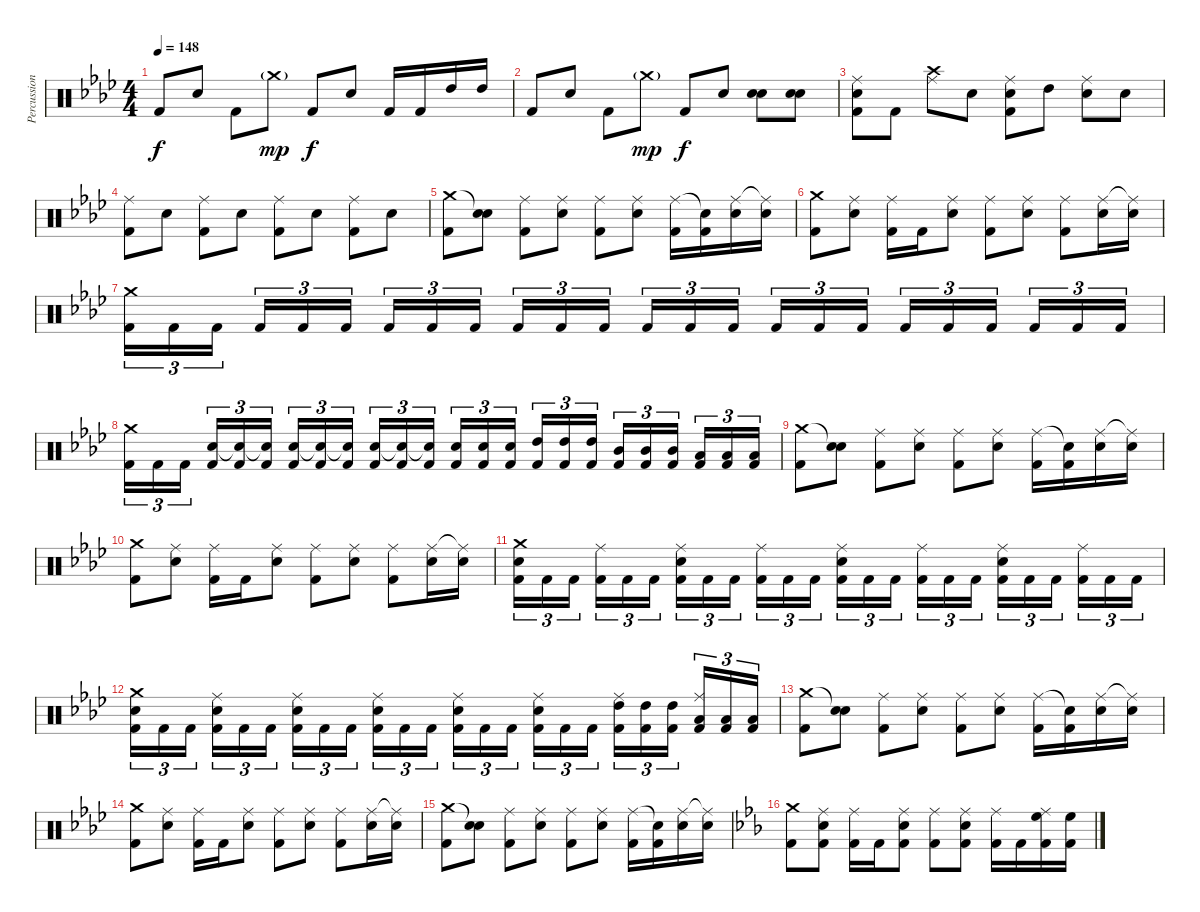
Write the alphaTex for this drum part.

\track ("Percussion" "Percussion") {instrument percussion}
\staff {score}
\articulation defaults
\ts (4 4)
\tempo 148
\clef neutral
\ks ab "Kick (hit) 2".8{dy f} "Snare (hit) 2".8 "Kick (hit) 2".8 "Crash medium (hit)"{g}.8{dy mp} "Kick (hit) 2".8{dy f} "Snare (hit) 2".8 "Kick (hit) 2".16 "Kick (hit) 2".16 "High Tom (hit)".16 "High Tom (hit)".16
|
"Kick (hit) 2".8 "Snare (hit) 2".8 "Kick (hit) 2".8 "Crash medium (hit)"{g}.8{dy mp} "Kick (hit) 2".8{dy f} "Snare (hit) 2".8 ("Snare (hit) 2" "Electric Snare (hit)").8 ("Snare (hit) 2" "Electric Snare (hit)").8 |
("Ride (middle)" "Snare (hit) 2" "Kick (hit) 2").8 "Kick (hit) 2".8 ("Ride (middle)" "Crash high (hit)").8 "Snare (hit) 2".8 ("Ride (middle)" "Snare (hit) 2" "Kick (hit) 2").8 "High Tom (hit)".8 ("Ride (middle)" "Electric Snare (hit)").8 "Electric Snare (hit)".8 |
("Ride (middle)" "Kick (hit) 2").8 "Electric Snare (hit)".8 ("Ride (middle)" "Kick (hit) 2").8 "Snare (hit) 2".8 ("Ride (middle)" "Kick (hit) 2").8 "Electric Snare (hit)".8 ("Ride (middle)" "Kick (hit) 2").8 "Snare (hit) 2".8 |
("Crash medium (hit)" "Kick (hit) 2").8 ("Snare (hit)"{t} "Electric Snare (hit)").8 ("Ride (middle)" "Kick (hit) 2").8 ("Ride (middle)" "Snare (hit) 2").8 ("Ride (middle)" "Kick (hit) 2").8 ("Ride (middle)" "Electric Snare (hit)").8 ("Ride (middle)" "Kick (hit) 2").16 ("Snare (hit)"{t} "Kick (hit) 2").16 ("Ride (middle)" "Electric Snare (hit)").16 ("Ride (middle)"{t} "Electric Snare (hit)").16 |
("Crash medium (hit)" "Kick (hit) 2").8 ("Ride (middle)" "Electric Snare (hit)").8 ("Ride (middle)" "Kick (hit) 2").16 "Kick (hit) 2".16 ("Ride (middle)" "Electric Snare (hit)").8 ("Ride (middle)" "Kick (hit) 2").8 ("Ride (middle)" "Snare (hit) 2").8 ("Ride (middle)" "Kick (hit) 2").8 ("Ride (middle)" "Electric Snare (hit)").16 ("Ride (middle)"{t} "Electric Snare (hit)").16 |
("Crash medium (hit)" "Kick (hit) 2").16{tu (3 2)} "Kick (hit) 2".16{tu (3 2)} "Kick (hit) 2".16{tu (3 2)} "Kick (hit) 2".16{tu (3 2)} "Kick (hit) 2".16{tu (3 2)} "Kick (hit) 2".16{tu (3 2)} "Kick (hit) 2".16{tu (3 2)} "Kick (hit) 2".16{tu (3 2)} "Kick (hit) 2".16{tu (3 2)} "Kick (hit) 2".16{tu (3 2)} "Kick (hit) 2".16{tu (3 2)} "Kick (hit) 2".16{tu (3 2)} "Kick (hit) 2".16{tu (3 2)} "Kick (hit) 2".16{tu (3 2)} "Kick (hit) 2".16{tu (3 2)} "Kick (hit) 2".16{tu (3 2)} "Kick (hit) 2".16{tu (3 2)} "Kick (hit) 2".16{tu (3 2)} "Kick (hit) 2".16{tu (3 2)} "Kick (hit) 2".16{tu (3 2)} "Kick (hit) 2".16{tu (3 2)} "Kick (hit) 2".16{tu (3 2)} "Kick (hit) 2".16{tu (3 2)} "Kick (hit) 2".16{tu (3 2)} |
("Crash medium (hit)" "Kick (hit) 2").16{tu (3 2)} "Kick (hit) 2".16{tu (3 2)} "Kick (hit) 2".16{tu (3 2)} ("Electric Snare (hit)" "Kick (hit) 2").16{tu (3 2)} ("Snare (hit)"{t} "Kick (hit) 2").16{tu (3 2)} ("Snare (hit)"{t} "Kick (hit) 2").16{tu (3 2)} ("Electric Snare (hit)" "Kick (hit) 2").16{tu (3 2)} ("Snare (hit)"{t} "Kick (hit) 2").16{tu (3 2)} ("Snare (hit)"{t} "Kick (hit) 2").16{tu (3 2)} ("Electric Snare (hit)" "Kick (hit) 2").16{tu (3 2)} ("Snare (hit)"{t} "Kick (hit) 2").16{tu (3 2)} ("Snare (hit)"{t} "Kick (hit) 2").16{tu (3 2)} ("Electric Snare (hit)" "Kick (hit) 2").16{tu (3 2)} ("Electric Snare (hit)" "Kick (hit) 2").16{tu (3 2)} ("Electric Snare (hit)" "Kick (hit) 2").16{tu (3 2)} ("High Tom (hit)" "Kick (hit) 2").16{tu (3 2)} ("High Tom (hit)" "Kick (hit) 2").16{tu (3 2)} ("High Tom (hit)" "Kick (hit) 2").16{tu (3 2)} ("Mid Tom (hit)" "Kick (hit) 2").16{tu (3 2)} ("Mid Tom (hit)" "Kick (hit) 2").16{tu (3 2)} ("Mid Tom (hit)" "Kick (hit) 2").16{tu (3 2)} ("Low Tom (hit)" "Kick (hit) 2").16{tu (3 2)} ("Low Tom (hit)" "Kick (hit) 2").16{tu (3 2)} ("Low Tom (hit)" "Kick (hit) 2").16{tu (3 2)} |
("Crash medium (hit)" "Kick (hit) 2").8 ("Snare (hit)"{t} "Electric Snare (hit)").8 ("Ride (middle)" "Kick (hit) 2").8 ("Ride (middle)" "Snare (hit) 2").8 ("Ride (middle)" "Kick (hit) 2").8 ("Ride (middle)" "Electric Snare (hit)").8 ("Ride (middle)" "Kick (hit) 2").16 ("Snare (hit)"{t} "Kick (hit) 2").16 ("Ride (middle)" "Electric Snare (hit)").16 ("Ride (middle)"{t} "Electric Snare (hit)").16 |
("Crash medium (hit)" "Kick (hit) 2").8 ("Ride (middle)" "Electric Snare (hit)").8 ("Ride (middle)" "Kick (hit) 2").16 "Kick (hit) 2".16 ("Ride (middle)" "Electric Snare (hit)").8 ("Ride (middle)" "Kick (hit) 2").8 ("Ride (middle)" "Snare (hit) 2").8 ("Ride (middle)" "Kick (hit) 2").8 ("Ride (middle)" "Electric Snare (hit)").16 ("Ride (middle)"{t} "Electric Snare (hit)").16 |
("Crash medium (hit)" "Snare (hit) 2" "Kick (hit) 2").16{tu (3 2)} "Kick (hit) 2".16{tu (3 2)} "Kick (hit) 2".16{tu (3 2)} ("Ride (middle)" "Kick (hit) 2").16{tu (3 2)} "Kick (hit) 2".16{tu (3 2)} "Kick (hit) 2".16{tu (3 2)} ("Ride (middle)" "Snare (hit) 2" "Kick (hit) 2").16{tu (3 2)} "Kick (hit) 2".16{tu (3 2)} "Kick (hit) 2".16{tu (3 2)} ("Ride (middle)" "Kick (hit) 2").16{tu (3 2)} "Kick (hit) 2".16{tu (3 2)} "Kick (hit) 2".16{tu (3 2)} ("Ride (middle)" "Snare (hit) 2" "Kick (hit) 2").16{tu (3 2)} "Kick (hit) 2".16{tu (3 2)} "Kick (hit) 2".16{tu (3 2)} ("Ride (middle)" "Kick (hit) 2").16{tu (3 2)} "Kick (hit) 2".16{tu (3 2)} "Kick (hit) 2".16{tu (3 2)} ("Ride (middle)" "Snare (hit) 2" "Kick (hit) 2").16{tu (3 2)} "Kick (hit) 2".16{tu (3 2)} "Kick (hit) 2".16{tu (3 2)} ("Ride (middle)" "Kick (hit) 2").16{tu (3 2)} "Kick (hit) 2".16{tu (3 2)} "Kick (hit) 2".16{tu (3 2)} |
("Crash medium (hit)" "Snare (hit) 2" "Kick (hit) 2").16{tu (3 2)} "Kick (hit) 2".16{tu (3 2)} "Kick (hit) 2".16{tu (3 2)} ("Ride (middle)" "Snare (hit) 2" "Kick (hit) 2").16{tu (3 2)} "Kick (hit) 2".16{tu (3 2)} "Kick (hit) 2".16{tu (3 2)} ("Ride (middle)" "Snare (hit) 2" "Kick (hit) 2").16{tu (3 2)} "Kick (hit) 2".16{tu (3 2)} "Kick (hit) 2".16{tu (3 2)} ("Ride (middle)" "Snare (hit) 2" "Kick (hit) 2").16{tu (3 2)} "Kick (hit) 2".16{tu (3 2)} "Kick (hit) 2".16{tu (3 2)} ("Ride (middle)" "Snare (hit) 2" "Kick (hit) 2").16{tu (3 2)} "Kick (hit) 2".16{tu (3 2)} "Kick (hit) 2".16{tu (3 2)} ("Ride (middle)" "Snare (hit) 2" "Kick (hit) 2").16{tu (3 2)} "Kick (hit) 2".16{tu (3 2)} "Kick (hit) 2".16{tu (3 2)} ("Ride (middle)" "High Tom (hit)" "Kick (hit) 2").16{tu (3 2)} ("High Tom (hit)" "Kick (hit) 2").16{tu (3 2)} ("High Tom (hit)" "Kick (hit) 2").16{tu (3 2)} ("Ride (middle)" "Low Tom (hit)" "Kick (hit) 2").16{tu (3 2)} ("Low Tom (hit)" "Kick (hit) 2").16{tu (3 2)} ("Low Tom (hit)" "Kick (hit) 2").16{tu (3 2)} |
("Crash medium (hit)" "Kick (hit) 2").8 ("Snare (hit)"{t} "Electric Snare (hit)").8 ("Ride (middle)" "Kick (hit) 2").8 ("Ride (middle)" "Snare (hit) 2").8 ("Ride (middle)" "Kick (hit) 2").8 ("Ride (middle)" "Electric Snare (hit)").8 ("Ride (middle)" "Kick (hit) 2").16 ("Snare (hit)"{t} "Kick (hit) 2").16 ("Ride (middle)" "Electric Snare (hit)").16 ("Ride (middle)"{t} "Electric Snare (hit)").16 |
("Crash medium (hit)" "Kick (hit) 2").8 ("Ride (middle)" "Electric Snare (hit)").8 ("Ride (middle)" "Kick (hit) 2").16 "Kick (hit) 2".16 ("Ride (middle)" "Electric Snare (hit)").8 ("Ride (middle)" "Kick (hit) 2").8 ("Ride (middle)" "Snare (hit) 2").8 ("Ride (middle)" "Kick (hit) 2").8 ("Ride (middle)" "Electric Snare (hit)").16 ("Ride (middle)"{t} "Electric Snare (hit)").16 |
("Crash medium (hit)" "Kick (hit) 2").8 ("Snare (hit)"{t} "Electric Snare (hit)").8 ("Ride (middle)" "Kick (hit) 2").8 ("Ride (middle)" "Snare (hit) 2").8 ("Ride (middle)" "Kick (hit) 2").8 ("Ride (middle)" "Electric Snare (hit)").8 ("Ride (middle)" "Kick (hit) 2").16 ("Snare (hit)"{t} "Kick (hit) 2").16 ("Ride (middle)" "Electric Snare (hit)").16 ("Ride (middle)"{t} "Electric Snare (hit)").16 |
\ks eb
("Crash medium (hit)" "Kick (hit) 2").8 ("Ride (middle)" "Electric Snare (hit)" "Kick (hit) 2").8 ("Ride (middle)" "Kick (hit) 2").16 "Kick (hit) 2".16 ("Ride (middle)" "Electric Snare (hit)" "Kick (hit) 2").8 ("Ride (middle)" "Kick (hit) 2").8 ("Ride (middle)" "Electric Snare (hit)" "Kick (hit) 2").8 ("Ride (middle)" "Kick (hit) 2").16 "Kick (hit) 2".16 ("Ride (middle)" "High Floor Tom (hit)" "Kick (hit) 2").16 ("High Floor Tom (hit)" "Kick (hit) 2").16
